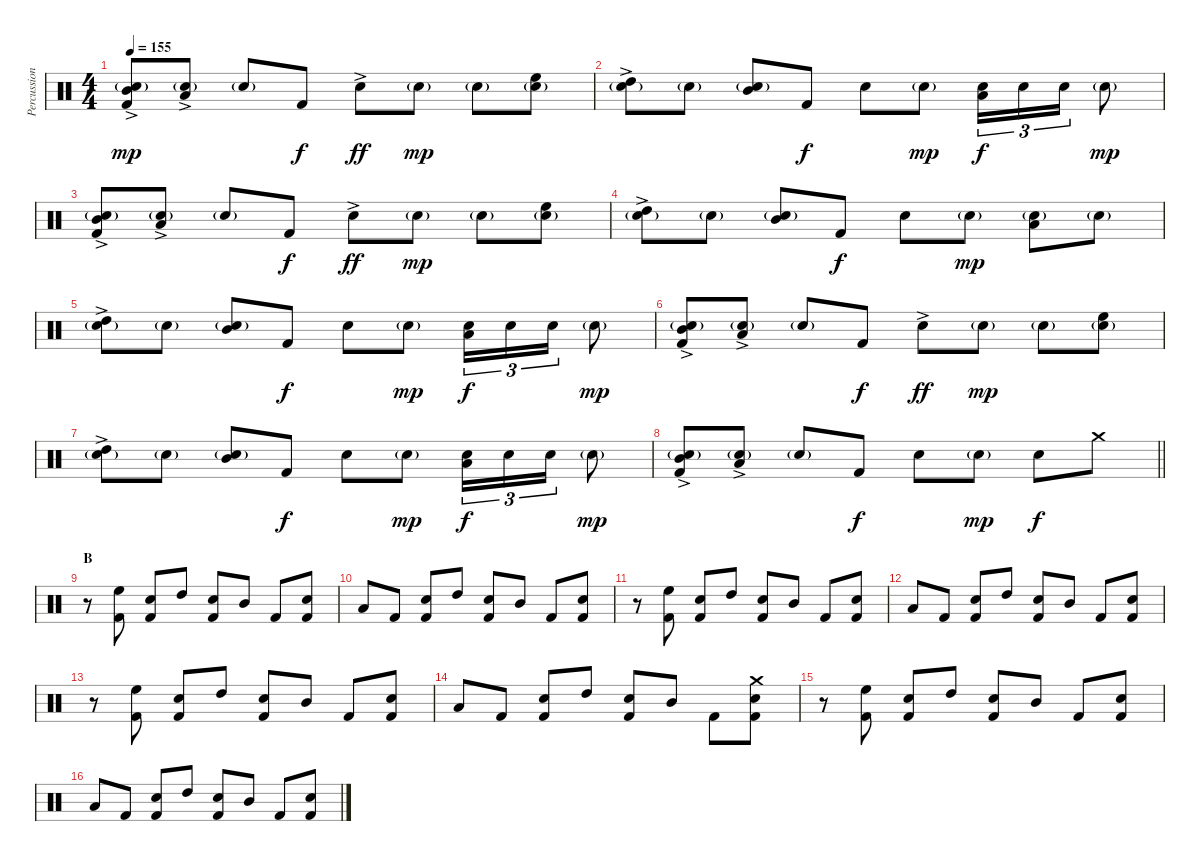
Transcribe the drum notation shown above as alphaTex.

\track ("Percussion" "Percussion") {instrument percussion}
\staff {score}
\articulation defaults
\ts (4 4)
\tempo 155
\clef neutral
\ks c
("Mid Tom (hit)"{ac} "Snare (hit) 2"{g} "Kick (hit) 2").8{dy mp} ("Low Tom (hit)"{ac} "Snare (hit) 2"{g}).8 "Snare (hit) 2"{g}.8 "Kick (hit) 2".8{dy f} "Snare (hit) 2"{ac}.8{dy ff} "Snare (hit) 2"{g}.8{dy mp} "Snare (hit) 2"{g}.8 ("High Floor Tom (hit)" "Snare (hit) 2"{g}).8 |
("High Tom (hit)"{ac} "Snare (hit) 2"{g}).8 "Snare (hit) 2"{g}.8 ("Mid Tom (hit)" "Snare (hit) 2"{g}).8 "Kick (hit) 2".8{dy f} "Snare (hit) 2".8 "Snare (hit) 2"{g}.8{dy mp} ("Low Tom (hit)" "Snare (hit) 2").16{tu (3 2) dy f} "Snare (hit) 2".16{tu (3 2)} "Snare (hit) 2".16{tu (3 2)} "Snare (hit) 2"{g}.8{dy mp} |
("Mid Tom (hit)"{ac} "Snare (hit) 2"{g} "Kick (hit) 2").8 ("Low Tom (hit)"{ac} "Snare (hit) 2"{g}).8 "Snare (hit) 2"{g}.8 "Kick (hit) 2".8{dy f} "Snare (hit) 2"{ac}.8{dy ff} "Snare (hit) 2"{g}.8{dy mp} "Snare (hit) 2"{g}.8 ("High Floor Tom (hit)" "Snare (hit) 2"{g}).8 |
("High Tom (hit)"{ac} "Snare (hit) 2"{g}).8 "Snare (hit) 2"{g}.8 ("Mid Tom (hit)" "Snare (hit) 2"{g}).8 "Kick (hit) 2".8{dy f} "Snare (hit) 2".8 "Snare (hit) 2"{g}.8{dy mp} ("Low Tom (hit)" "Snare (hit) 2"{g}).8 "Snare (hit) 2"{g}.8 |
("High Tom (hit)"{ac} "Snare (hit) 2"{g}).8 "Snare (hit) 2"{g}.8 ("Mid Tom (hit)" "Snare (hit) 2"{g}).8 "Kick (hit) 2".8{dy f} "Snare (hit) 2".8 "Snare (hit) 2"{g}.8{dy mp} ("Low Tom (hit)" "Snare (hit) 2").16{tu (3 2) dy f} "Snare (hit) 2".16{tu (3 2)} "Snare (hit) 2".16{tu (3 2)} "Snare (hit) 2"{g}.8{dy mp} |
("Mid Tom (hit)"{ac} "Snare (hit) 2"{g} "Kick (hit) 2").8 ("Low Tom (hit)"{ac} "Snare (hit) 2"{g}).8 "Snare (hit) 2"{g}.8 "Kick (hit) 2".8{dy f} "Snare (hit) 2"{ac}.8{dy ff} "Snare (hit) 2"{g}.8{dy mp} "Snare (hit) 2"{g}.8 ("High Floor Tom (hit)" "Snare (hit) 2"{g}).8 |
("High Tom (hit)"{ac} "Snare (hit) 2"{g}).8 "Snare (hit) 2"{g}.8 ("Mid Tom (hit)" "Snare (hit) 2"{g}).8 "Kick (hit) 2".8{dy f} "Snare (hit) 2".8 "Snare (hit) 2"{g}.8{dy mp} ("Low Tom (hit)" "Snare (hit) 2").16{tu (3 2) dy f} "Snare (hit) 2".16{tu (3 2)} "Snare (hit) 2".16{tu (3 2)} "Snare (hit) 2"{g}.8{dy mp} |
\barLineRight lightlight
("Mid Tom (hit)"{ac} "Snare (hit) 2"{g} "Kick (hit) 2").8 ("Low Tom (hit)"{ac} "Snare (hit) 2"{g}).8 "Snare (hit) 2"{g}.8 "Kick (hit) 2".8{dy f} "Snare (hit) 2".8 "Snare (hit) 2"{g}.8{dy mp} "Snare (hit) 2".8{dy f} "Crash medium (hit)".8 |
\section ("" "B")
r.8 ("High Floor Tom (hit)" "Kick (hit) 2").8 ("Snare (hit) 2" "Kick (hit) 2").8 "High Tom (hit)".8 ("Snare (hit) 2" "Kick (hit) 2").8 "Mid Tom (hit)".8 "Kick (hit) 2".8 ("Snare (hit) 2" "Kick (hit) 2").8 |
"Low Tom (hit)".8 "Kick (hit) 2".8 ("Snare (hit) 2" "Kick (hit) 2").8 "High Tom (hit)".8 ("Snare (hit) 2" "Kick (hit) 2").8 "Mid Tom (hit)".8 "Kick (hit) 2".8 ("Snare (hit) 2" "Kick (hit) 2").8 |
r.8 ("High Floor Tom (hit)" "Kick (hit) 2").8 ("Snare (hit) 2" "Kick (hit) 2").8 "High Tom (hit)".8 ("Snare (hit) 2" "Kick (hit) 2").8 "Mid Tom (hit)".8 "Kick (hit) 2".8 ("Snare (hit) 2" "Kick (hit) 2").8 |
"Low Tom (hit)".8 "Kick (hit) 2".8 ("Snare (hit) 2" "Kick (hit) 2").8 "High Tom (hit)".8 ("Snare (hit) 2" "Kick (hit) 2").8 "Mid Tom (hit)".8 "Kick (hit) 2".8 ("Snare (hit) 2" "Kick (hit) 2").8 |
r.8 ("High Floor Tom (hit)" "Kick (hit) 2").8 ("Snare (hit) 2" "Kick (hit) 2").8 "High Tom (hit)".8 ("Snare (hit) 2" "Kick (hit) 2").8 "Mid Tom (hit)".8 "Kick (hit) 2".8 ("Snare (hit) 2" "Kick (hit) 2").8 |
"Low Tom (hit)".8 "Kick (hit) 2".8 ("Snare (hit) 2" "Kick (hit) 2").8 "High Tom (hit)".8 ("Snare (hit) 2" "Kick (hit) 2").8 "Mid Tom (hit)".8 "Kick (hit) 2".8 ("Crash medium (hit)" "Snare (hit) 2" "Kick (hit) 2").8 |
r.8 ("High Floor Tom (hit)" "Kick (hit) 2").8 ("Snare (hit) 2" "Kick (hit) 2").8 "High Tom (hit)".8 ("Snare (hit) 2" "Kick (hit) 2").8 "Mid Tom (hit)".8 "Kick (hit) 2".8 ("Snare (hit) 2" "Kick (hit) 2").8 |
"Low Tom (hit)".8 "Kick (hit) 2".8 ("Snare (hit) 2" "Kick (hit) 2").8 "High Tom (hit)".8 ("Snare (hit) 2" "Kick (hit) 2").8 "Mid Tom (hit)".8 "Kick (hit) 2".8 ("Snare (hit) 2" "Kick (hit) 2").8
